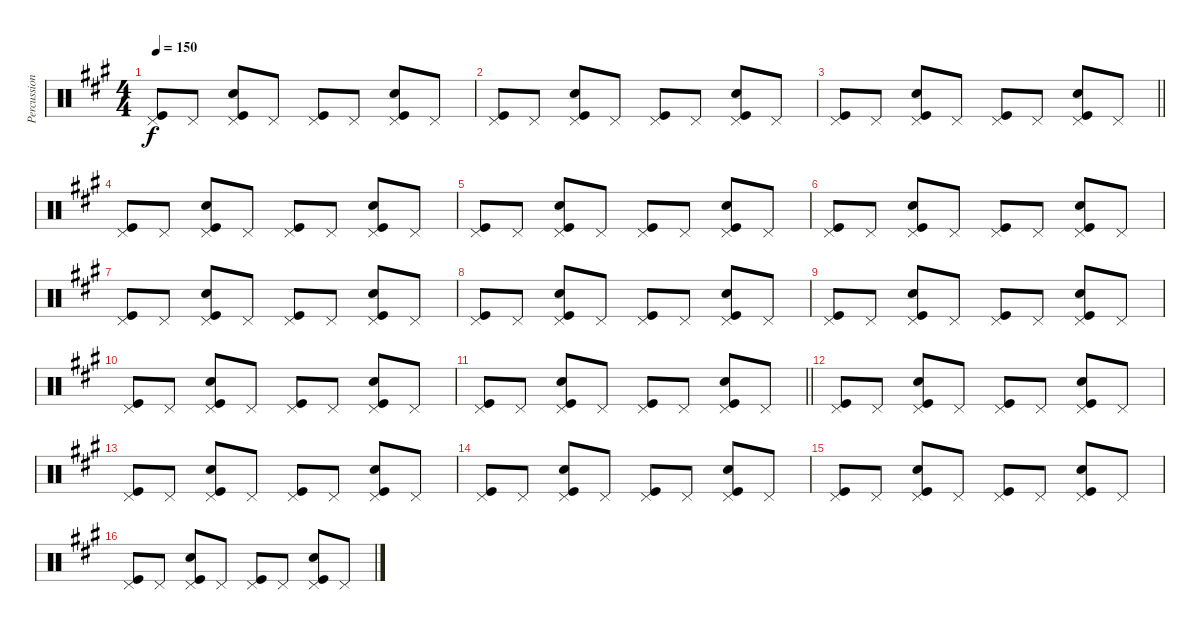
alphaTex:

\track ("Percussions" "Percussion") {instrument percussion}
\staff {score}
\articulation defaults
\ts (4 4)
\tempo 150
\clef neutral
\ks a
("Kick (hit)" "Pedal Hi-Hat (hit)").8{dy f} "Pedal Hi-Hat (hit)".8 ("Snare (hit) 2" "Kick (hit)" "Pedal Hi-Hat (hit)").8 "Pedal Hi-Hat (hit)".8 ("Kick (hit)" "Pedal Hi-Hat (hit)").8 "Pedal Hi-Hat (hit)".8 ("Snare (hit) 2" "Kick (hit)" "Pedal Hi-Hat (hit)").8 "Pedal Hi-Hat (hit)".8 |
("Kick (hit)" "Pedal Hi-Hat (hit)").8 "Pedal Hi-Hat (hit)".8 ("Snare (hit) 2" "Kick (hit)" "Pedal Hi-Hat (hit)").8 "Pedal Hi-Hat (hit)".8 ("Kick (hit)" "Pedal Hi-Hat (hit)").8 "Pedal Hi-Hat (hit)".8 ("Snare (hit) 2" "Kick (hit)" "Pedal Hi-Hat (hit)").8 "Pedal Hi-Hat (hit)".8 |
\barLineRight lightlight
("Kick (hit)" "Pedal Hi-Hat (hit)").8 "Pedal Hi-Hat (hit)".8 ("Snare (hit) 2" "Kick (hit)" "Pedal Hi-Hat (hit)").8 "Pedal Hi-Hat (hit)".8 ("Kick (hit)" "Pedal Hi-Hat (hit)").8 "Pedal Hi-Hat (hit)".8 ("Snare (hit) 2" "Kick (hit)" "Pedal Hi-Hat (hit)").8 "Pedal Hi-Hat (hit)".8 |
("Kick (hit)" "Pedal Hi-Hat (hit)").8 "Pedal Hi-Hat (hit)".8 ("Snare (hit) 2" "Kick (hit)" "Pedal Hi-Hat (hit)").8 "Pedal Hi-Hat (hit)".8 ("Kick (hit)" "Pedal Hi-Hat (hit)").8 "Pedal Hi-Hat (hit)".8 ("Snare (hit) 2" "Kick (hit)" "Pedal Hi-Hat (hit)").8 "Pedal Hi-Hat (hit)".8 |
("Kick (hit)" "Pedal Hi-Hat (hit)").8 "Pedal Hi-Hat (hit)".8 ("Snare (hit) 2" "Kick (hit)" "Pedal Hi-Hat (hit)").8 "Pedal Hi-Hat (hit)".8 ("Kick (hit)" "Pedal Hi-Hat (hit)").8 "Pedal Hi-Hat (hit)".8 ("Snare (hit) 2" "Kick (hit)" "Pedal Hi-Hat (hit)").8 "Pedal Hi-Hat (hit)".8 |
("Kick (hit)" "Pedal Hi-Hat (hit)").8 "Pedal Hi-Hat (hit)".8 ("Snare (hit) 2" "Kick (hit)" "Pedal Hi-Hat (hit)").8 "Pedal Hi-Hat (hit)".8 ("Kick (hit)" "Pedal Hi-Hat (hit)").8 "Pedal Hi-Hat (hit)".8 ("Snare (hit) 2" "Kick (hit)" "Pedal Hi-Hat (hit)").8 "Pedal Hi-Hat (hit)".8 |
("Kick (hit)" "Pedal Hi-Hat (hit)").8 "Pedal Hi-Hat (hit)".8 ("Snare (hit) 2" "Kick (hit)" "Pedal Hi-Hat (hit)").8 "Pedal Hi-Hat (hit)".8 ("Kick (hit)" "Pedal Hi-Hat (hit)").8 "Pedal Hi-Hat (hit)".8 ("Snare (hit) 2" "Kick (hit)" "Pedal Hi-Hat (hit)").8 "Pedal Hi-Hat (hit)".8 |
("Kick (hit)" "Pedal Hi-Hat (hit)").8 "Pedal Hi-Hat (hit)".8 ("Snare (hit) 2" "Kick (hit)" "Pedal Hi-Hat (hit)").8 "Pedal Hi-Hat (hit)".8 ("Kick (hit)" "Pedal Hi-Hat (hit)").8 "Pedal Hi-Hat (hit)".8 ("Snare (hit) 2" "Kick (hit)" "Pedal Hi-Hat (hit)").8 "Pedal Hi-Hat (hit)".8 |
("Kick (hit)" "Pedal Hi-Hat (hit)").8 "Pedal Hi-Hat (hit)".8 ("Snare (hit) 2" "Kick (hit)" "Pedal Hi-Hat (hit)").8 "Pedal Hi-Hat (hit)".8 ("Kick (hit)" "Pedal Hi-Hat (hit)").8 "Pedal Hi-Hat (hit)".8 ("Snare (hit) 2" "Kick (hit)" "Pedal Hi-Hat (hit)").8 "Pedal Hi-Hat (hit)".8 |
("Kick (hit)" "Pedal Hi-Hat (hit)").8 "Pedal Hi-Hat (hit)".8 ("Snare (hit) 2" "Kick (hit)" "Pedal Hi-Hat (hit)").8 "Pedal Hi-Hat (hit)".8 ("Kick (hit)" "Pedal Hi-Hat (hit)").8 "Pedal Hi-Hat (hit)".8 ("Snare (hit) 2" "Kick (hit)" "Pedal Hi-Hat (hit)").8 "Pedal Hi-Hat (hit)".8 |
\barLineRight lightlight
("Kick (hit)" "Pedal Hi-Hat (hit)").8 "Pedal Hi-Hat (hit)".8 ("Snare (hit) 2" "Kick (hit)" "Pedal Hi-Hat (hit)").8 "Pedal Hi-Hat (hit)".8 ("Kick (hit)" "Pedal Hi-Hat (hit)").8 "Pedal Hi-Hat (hit)".8 ("Snare (hit) 2" "Kick (hit)" "Pedal Hi-Hat (hit)").8 "Pedal Hi-Hat (hit)".8 |
("Kick (hit)" "Pedal Hi-Hat (hit)").8 "Pedal Hi-Hat (hit)".8 ("Snare (hit) 2" "Kick (hit)" "Pedal Hi-Hat (hit)").8 "Pedal Hi-Hat (hit)".8 ("Kick (hit)" "Pedal Hi-Hat (hit)").8 "Pedal Hi-Hat (hit)".8 ("Snare (hit) 2" "Kick (hit)" "Pedal Hi-Hat (hit)").8 "Pedal Hi-Hat (hit)".8 |
("Kick (hit)" "Pedal Hi-Hat (hit)").8 "Pedal Hi-Hat (hit)".8 ("Snare (hit) 2" "Kick (hit)" "Pedal Hi-Hat (hit)").8 "Pedal Hi-Hat (hit)".8 ("Kick (hit)" "Pedal Hi-Hat (hit)").8 "Pedal Hi-Hat (hit)".8 ("Snare (hit) 2" "Kick (hit)" "Pedal Hi-Hat (hit)").8 "Pedal Hi-Hat (hit)".8 |
("Kick (hit)" "Pedal Hi-Hat (hit)").8 "Pedal Hi-Hat (hit)".8 ("Snare (hit) 2" "Kick (hit)" "Pedal Hi-Hat (hit)").8 "Pedal Hi-Hat (hit)".8 ("Kick (hit)" "Pedal Hi-Hat (hit)").8 "Pedal Hi-Hat (hit)".8 ("Snare (hit) 2" "Kick (hit)" "Pedal Hi-Hat (hit)").8 "Pedal Hi-Hat (hit)".8 |
("Kick (hit)" "Pedal Hi-Hat (hit)").8 "Pedal Hi-Hat (hit)".8 ("Snare (hit) 2" "Kick (hit)" "Pedal Hi-Hat (hit)").8 "Pedal Hi-Hat (hit)".8 ("Kick (hit)" "Pedal Hi-Hat (hit)").8 "Pedal Hi-Hat (hit)".8 ("Snare (hit) 2" "Kick (hit)" "Pedal Hi-Hat (hit)").8 "Pedal Hi-Hat (hit)".8 |
("Kick (hit)" "Pedal Hi-Hat (hit)").8 "Pedal Hi-Hat (hit)".8 ("Snare (hit) 2" "Kick (hit)" "Pedal Hi-Hat (hit)").8 "Pedal Hi-Hat (hit)".8 ("Kick (hit)" "Pedal Hi-Hat (hit)").8 "Pedal Hi-Hat (hit)".8 ("Snare (hit) 2" "Kick (hit)" "Pedal Hi-Hat (hit)").8 "Pedal Hi-Hat (hit)".8
